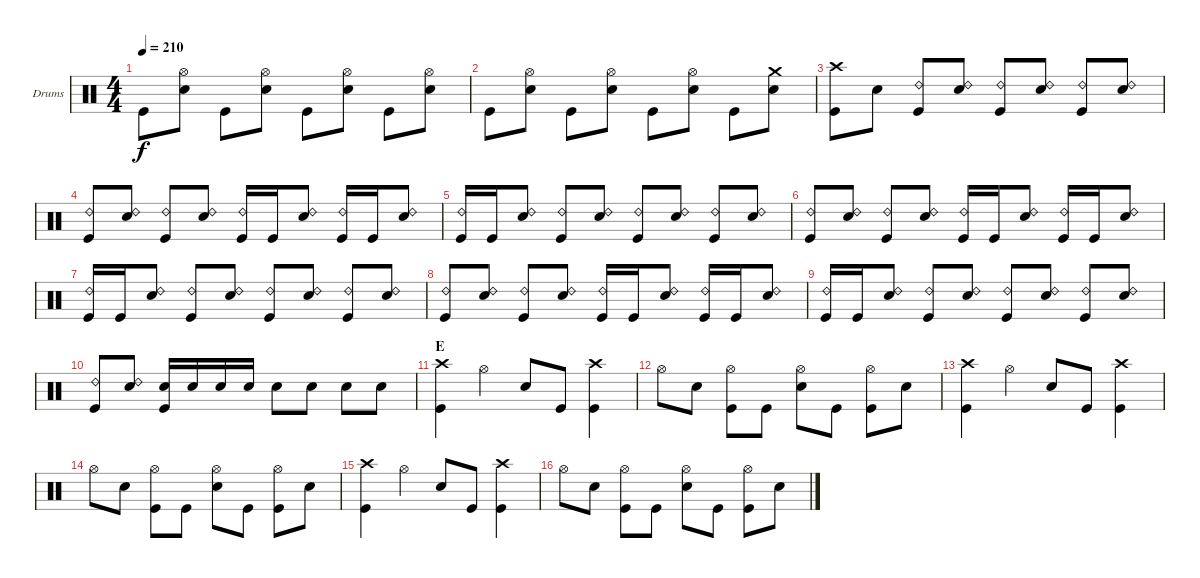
\bracketExtendMode groupsimilarinstruments
\firstSystemTrackNameOrientation horizontal
\otherSystemsTrackNameOrientation horizontal
\track ("Drumkit" "Drums") {instrument percussion}
\staff {score}
\articulation defaults
\ts (4 4)
\tempo 210
\clef neutral
\ks c "Kick (hit)".8{dy f}
("Hi-Hat (open)" "Snare (hit) 2").8 "Kick (hit)".8 ("Hi-Hat (open)" "Snare (hit) 2").8 "Kick (hit)".8 ("Hi-Hat (open)" "Snare (hit) 2").8 "Kick (hit)".8 ("Hi-Hat (open)" "Snare (hit) 2").8 |
"Kick (hit)".8 ("Hi-Hat (open)" "Snare (hit) 2").8 "Kick (hit)".8 ("Hi-Hat (open)" "Snare (hit) 2").8 "Kick (hit)".8 ("Hi-Hat (open)" "Snare (hit) 2").8 "Kick (hit)".8 ("Crash medium (hit)" "Snare (hit) 2").8 |
("Crash high (hit)" "Kick (hit)").8 "Snare (hit) 2".8 ("Ride (bell) 2" "Kick (hit)").8 ("Ride (bell) 2" "Snare (hit) 2").8 ("Ride (bell) 2" "Kick (hit)").8 ("Ride (bell) 2" "Snare (hit) 2").8 ("Ride (bell) 2" "Kick (hit)").8 ("Ride (bell) 2" "Snare (hit) 2").8 |
("Ride (bell) 2" "Kick (hit)").8 ("Ride (bell) 2" "Snare (hit) 2").8 ("Ride (bell) 2" "Kick (hit)").8 ("Ride (bell) 2" "Snare (hit) 2").8 ("Ride (bell) 2" "Kick (hit)").16 "Kick (hit)".16 ("Ride (bell) 2" "Snare (hit) 2").8 ("Ride (bell) 2" "Kick (hit)").16 "Kick (hit)".16 ("Ride (bell) 2" "Snare (hit) 2").8 |
("Ride (bell) 2" "Kick (hit)").16 "Kick (hit)".16 ("Ride (bell) 2" "Snare (hit) 2").8 ("Ride (bell) 2" "Kick (hit)").8 ("Ride (bell) 2" "Snare (hit) 2").8 ("Ride (bell) 2" "Kick (hit)").8 ("Ride (bell) 2" "Snare (hit) 2").8 ("Ride (bell) 2" "Kick (hit)").8 ("Ride (bell) 2" "Snare (hit) 2").8 |
("Ride (bell) 2" "Kick (hit)").8 ("Ride (bell) 2" "Snare (hit) 2").8 ("Ride (bell) 2" "Kick (hit)").8 ("Ride (bell) 2" "Snare (hit) 2").8 ("Ride (bell) 2" "Kick (hit)").16 "Kick (hit)".16 ("Ride (bell) 2" "Snare (hit) 2").8 ("Ride (bell) 2" "Kick (hit)").16 "Kick (hit)".16 ("Ride (bell) 2" "Snare (hit) 2").8 |
("Ride (bell) 2" "Kick (hit)").16 "Kick (hit)".16 ("Ride (bell) 2" "Snare (hit) 2").8 ("Ride (bell) 2" "Kick (hit)").8 ("Ride (bell) 2" "Snare (hit) 2").8 ("Ride (bell) 2" "Kick (hit)").8 ("Ride (bell) 2" "Snare (hit) 2").8 ("Ride (bell) 2" "Kick (hit)").8 ("Ride (bell) 2" "Snare (hit) 2").8 |
("Ride (bell) 2" "Kick (hit)").8 ("Ride (bell) 2" "Snare (hit) 2").8 ("Ride (bell) 2" "Kick (hit)").8 ("Ride (bell) 2" "Snare (hit) 2").8 ("Ride (bell) 2" "Kick (hit)").16 "Kick (hit)".16 ("Ride (bell) 2" "Snare (hit) 2").8 ("Ride (bell) 2" "Kick (hit)").16 "Kick (hit)".16 ("Ride (bell) 2" "Snare (hit) 2").8 |
("Ride (bell) 2" "Kick (hit)").16 "Kick (hit)".16 ("Ride (bell) 2" "Snare (hit) 2").8 ("Ride (bell) 2" "Kick (hit)").8 ("Ride (bell) 2" "Snare (hit) 2").8 ("Ride (bell) 2" "Kick (hit)").8 ("Ride (bell) 2" "Snare (hit) 2").8 ("Ride (bell) 2" "Kick (hit)").8 ("Ride (bell) 2" "Snare (hit) 2").8 |
("Ride (bell) 2" "Kick (hit)").8 ("Ride (bell) 2" "Snare (hit) 2").8 ("Snare (hit) 2" "Kick (hit)").16 "Snare (hit) 2".16 "Snare (hit) 2".16 "Snare (hit) 2".16 "Snare (hit) 2".8 "Snare (hit) 2".8 "Snare (hit) 2".8 "Snare (hit) 2".8 |
\section ("" "E")
("Crash high (hit)" "Kick (hit)").4 "Hi-Hat (open)".4 "Snare (hit) 2".8 "Kick (hit)".8 ("Crash high (hit)" "Kick (hit)").4 |
"Hi-Hat (open)".8 "Snare (hit) 2".8 ("Hi-Hat (open)" "Kick (hit)").8 "Kick (hit)".8 ("Hi-Hat (open)" "Snare (hit) 2").8 "Kick (hit)".8 ("Hi-Hat (open)" "Kick (hit)").8 "Snare (hit) 2".8 |
("Crash high (hit)" "Kick (hit)").4 "Hi-Hat (open)".4 "Snare (hit) 2".8 "Kick (hit)".8 ("Crash high (hit)" "Kick (hit)").4 |
"Hi-Hat (open)".8 "Snare (hit) 2".8 ("Hi-Hat (open)" "Kick (hit)").8 "Kick (hit)".8 ("Hi-Hat (open)" "Snare (hit) 2").8 "Kick (hit)".8 ("Hi-Hat (open)" "Kick (hit)").8 "Snare (hit) 2".8 |
("Crash high (hit)" "Kick (hit)").4 "Hi-Hat (open)".4 "Snare (hit) 2".8 "Kick (hit)".8 ("Crash high (hit)" "Kick (hit)").4 |
"Hi-Hat (open)".8 "Snare (hit) 2".8 ("Hi-Hat (open)" "Kick (hit)").8 "Kick (hit)".8 ("Hi-Hat (open)" "Snare (hit) 2").8 "Kick (hit)".8 ("Hi-Hat (open)" "Kick (hit)").8 "Snare (hit) 2".8
